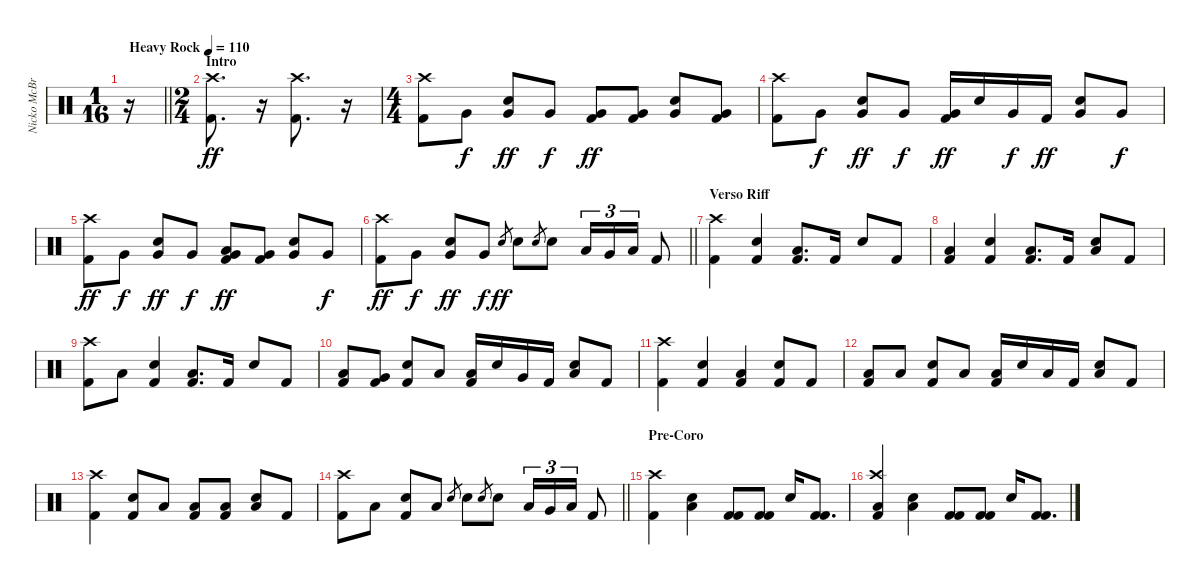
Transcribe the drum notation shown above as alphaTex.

\track ("Nicko McBrain" "Nicko McBr") {instrument percussion}
\staff {score}
\articulation defaults
\ts (1 16)
\tempo (110 "Heavy Rock")
\clef neutral
\barLineRight lightlight
\ks c
r.16{dy ff} |
\ts (2 4)
\section ("" "Intro")
("Kick (hit) 2" "Crash high (hit)").8{d} r.16 ("Kick (hit) 2" "Crash high (hit)").8{d} r.16 |
\ts (4 4)
("Kick (hit) 2" "Crash high (hit)").8 "Very Low Tom (hit)".8{dy f} ("Snare (hit) 2" "Very Low Tom (hit)").8{dy ff} "Very Low Tom (hit)".8{dy f} ("Kick (hit) 2" "Very Low Tom (hit)").8{dy ff} ("Kick (hit) 2" "Very Low Tom (hit)").8 ("Snare (hit) 2" "Very Low Tom (hit)").8 ("Kick (hit) 2" "Very Low Tom (hit)").8 |
("Kick (hit) 2" "Crash high (hit)").8 "Very Low Tom (hit)".8{dy f} ("Snare (hit) 2" "Very Low Tom (hit)").8{dy ff} "Very Low Tom (hit)".8{dy f} ("Kick (hit) 2" "Very Low Tom (hit)").16{dy ff} "Snare (hit) 2".16 "Very Low Tom (hit)".16{dy f} "Kick (hit) 2".16{dy ff} ("Snare (hit) 2" "Very Low Tom (hit)").8 "Very Low Tom (hit)".8{dy f} |
("Kick (hit) 2" "Crash high (hit)").8{dy ff} "Very Low Tom (hit)".8{dy f} ("Snare (hit) 2" "Very Low Tom (hit)").8{dy ff} "Very Low Tom (hit)".8{dy f} ("Kick (hit) 2" "Very Low Tom (hit)" "Low Tom (hit)").8{dy ff} ("Kick (hit) 2" "Very Low Tom (hit)").8 ("Snare (hit) 2" "Very Low Tom (hit)").8 "Very Low Tom (hit)".8{dy f} |
\barLineRight lightlight
("Kick (hit) 2" "Crash high (hit)").8{dy ff} "Very Low Tom (hit)".8{dy f} ("Snare (hit) 2" "Very Low Tom (hit)").8{dy ff} "Very Low Tom (hit)".8{dy f} "Snare (hit) 2".8{gr dy ff} "Snare (hit) 2".8 "Snare (hit) 2".8{gr} "Snare (hit) 2".8 "Low Tom (hit)".16{tu (3 2)} "Very Low Tom (hit)".16{tu (3 2)} "Low Floor Tom (hit)".16{tu (3 2)} "Kick (hit) 2".8 |
\section ("" "Verso Riff")
("Crash high (hit)" "Kick (hit) 2").4 ("Snare (hit) 2" "Kick (hit) 2").4 ("Low Floor Tom (hit)" "Kick (hit) 2").8{d} "Kick (hit) 2".16 "Snare (hit) 2".8 "Kick (hit) 2".8 |
("Low Floor Tom (hit)" "Kick (hit) 2").4 ("Snare (hit) 2" "Kick (hit) 2").4 ("Low Floor Tom (hit)" "Kick (hit) 2").8{d} "Kick (hit) 2".16 ("Snare (hit) 2" "Low Floor Tom (hit)").8 "Kick (hit) 2".8 |
("Crash high (hit)" "Kick (hit) 2").8 "Low Floor Tom (hit)".8 ("Snare (hit) 2" "Kick (hit) 2").4 ("Low Floor Tom (hit)" "Kick (hit) 2").8{d} "Kick (hit) 2".16 "Snare (hit) 2".8 "Kick (hit) 2".8 |
("Low Floor Tom (hit)" "Kick (hit) 2").8 ("Very Low Tom (hit)" "Kick (hit) 2").8 ("Snare (hit) 2" "Kick (hit) 2").8 "Low Floor Tom (hit)".8 ("Low Floor Tom (hit)" "Kick (hit) 2").16 "Snare (hit) 2".16 "Very Low Tom (hit)".16 "Kick (hit) 2".16 ("Snare (hit) 2" "Low Floor Tom (hit)").8 "Kick (hit) 2".8 |
("Kick (hit) 2" "Crash high (hit)").4 ("Snare (hit) 2" "Kick (hit) 2").4 ("Kick (hit) 2" "Low Floor Tom (hit)").4 ("Snare (hit) 2" "Kick (hit) 2").8 "Kick (hit) 2".8 |
("Kick (hit) 2" "Low Floor Tom (hit)").8 "Low Floor Tom (hit)".8 ("Snare (hit) 2" "Kick (hit) 2").8 "Low Floor Tom (hit)".8 ("Low Floor Tom (hit)" "Kick (hit) 2").16 "Snare (hit) 2".16 "Low Floor Tom (hit)".16 "Kick (hit) 2".16 ("Snare (hit) 2" "Low Floor Tom (hit)").8 "Kick (hit) 2".8 |
("Kick (hit) 2" "Crash high (hit)").4 ("Snare (hit) 2" "Kick (hit) 2").8 "Low Floor Tom (hit)".8 ("Low Tom (hit)" "Kick (hit) 2").8 ("Low Floor Tom (hit)" "Kick (hit) 2").8 ("Snare (hit) 2" "Low Floor Tom (hit)").8 "Kick (hit) 2".8 |
\barLineRight lightlight
("Kick (hit) 2" "Crash high (hit)").8 "Low Floor Tom (hit)".8 ("Snare (hit) 2" "Kick (hit) 2").8 "Low Floor Tom (hit)".8 "Snare (hit) 2".8{gr} "Snare (hit) 2".8 "Snare (hit) 2".8{gr} "Snare (hit) 2".8 "Low Tom (hit)".16{tu (3 2)} "Very Low Tom (hit)".16{tu (3 2)} "Low Floor Tom (hit)".16{tu (3 2)} "Kick (hit) 2".8 |
\section ("" "Pre-Coro")
("Crash high (hit)" "Kick (hit) 2").4 ("Snare (hit) 2" "Low Floor Tom (hit)").4 ("Kick (hit) 2" "Kick (hit) 2").8 ("Kick (hit) 2" "Kick (hit) 2").8 "Snare (hit) 2".16 ("Kick (hit) 2" "Kick (hit) 2").8{d} |
("Crash high (hit)" "Low Floor Tom (hit)" "Kick (hit) 2").4 ("Snare (hit) 2" "Low Floor Tom (hit)").4 ("Kick (hit) 2" "Kick (hit) 2").8 ("Kick (hit) 2" "Kick (hit) 2").8 "Snare (hit) 2".16 ("Kick (hit) 2" "Kick (hit) 2").8{d}
